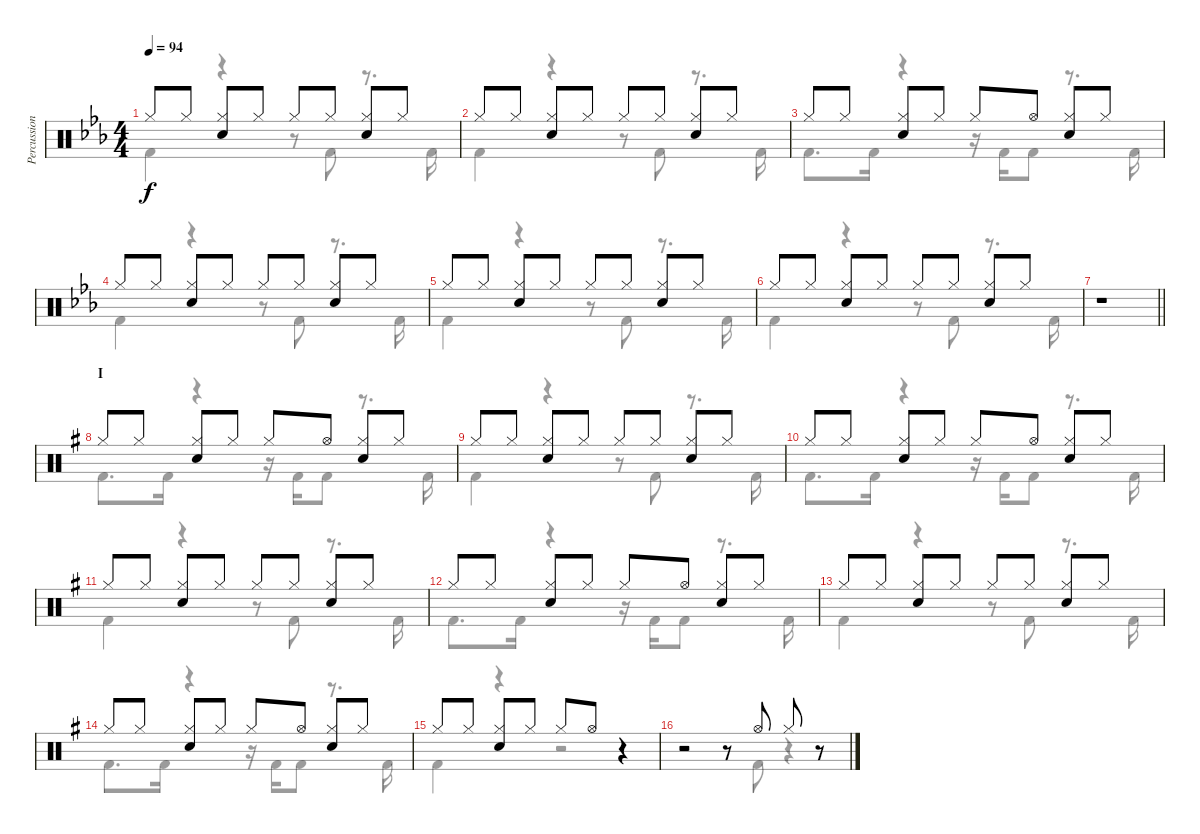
\track ("Percussion" "Percussion") {instrument percussion}
\staff {score}
\articulation defaults
\voice
\ts (4 4)
\tempo 94
\clef neutral
\ks eb "Hi-Hat (closed)".8{dy f} "Hi-Hat (closed)".8
("Hi-Hat (closed)" "Electric Snare (hit)").8 "Hi-Hat (closed)".8 "Hi-Hat (closed)".8 "Hi-Hat (closed)".8 ("Hi-Hat (closed)" "Electric Snare (hit)").8 "Hi-Hat (closed)".8 |
"Hi-Hat (closed)".8 "Hi-Hat (closed)".8 ("Hi-Hat (closed)" "Electric Snare (hit)").8 "Hi-Hat (closed)".8 "Hi-Hat (closed)".8 "Hi-Hat (closed)".8 ("Hi-Hat (closed)" "Electric Snare (hit)").8 "Hi-Hat (closed)".8 |
"Hi-Hat (closed)".8 "Hi-Hat (closed)".8 ("Hi-Hat (closed)" "Electric Snare (hit)").8 "Hi-Hat (closed)".8 "Hi-Hat (closed)".8 "Hi-Hat (open)".8 ("Hi-Hat (closed)" "Electric Snare (hit)").8 "Hi-Hat (closed)".8 |
"Hi-Hat (closed)".8 "Hi-Hat (closed)".8 ("Hi-Hat (closed)" "Electric Snare (hit)").8 "Hi-Hat (closed)".8 "Hi-Hat (closed)".8 "Hi-Hat (closed)".8 ("Hi-Hat (closed)" "Electric Snare (hit)").8 "Hi-Hat (closed)".8 |
"Hi-Hat (closed)".8 "Hi-Hat (closed)".8 ("Hi-Hat (closed)" "Electric Snare (hit)").8 "Hi-Hat (closed)".8 "Hi-Hat (closed)".8 "Hi-Hat (closed)".8 ("Hi-Hat (closed)" "Electric Snare (hit)").8 "Hi-Hat (closed)".8 |
"Hi-Hat (closed)".8 "Hi-Hat (closed)".8 ("Hi-Hat (closed)" "Electric Snare (hit)").8 "Hi-Hat (closed)".8 "Hi-Hat (closed)".8 "Hi-Hat (closed)".8 ("Hi-Hat (closed)" "Electric Snare (hit)").8 "Hi-Hat (closed)".8 |
\barLineRight lightlight
r.1 |
\section ("" "I")
\ks g "Hi-Hat (closed)".8 "Hi-Hat (closed)".8
("Hi-Hat (closed)" "Electric Snare (hit)").8 "Hi-Hat (closed)".8 "Hi-Hat (closed)".8 "Hi-Hat (open)".8 ("Hi-Hat (closed)" "Electric Snare (hit)").8 "Hi-Hat (closed)".8 |
"Hi-Hat (closed)".8 "Hi-Hat (closed)".8 ("Hi-Hat (closed)" "Electric Snare (hit)").8 "Hi-Hat (closed)".8 "Hi-Hat (closed)".8 "Hi-Hat (closed)".8 ("Hi-Hat (closed)" "Electric Snare (hit)").8 "Hi-Hat (closed)".8 |
"Hi-Hat (closed)".8 "Hi-Hat (closed)".8 ("Hi-Hat (closed)" "Electric Snare (hit)").8 "Hi-Hat (closed)".8 "Hi-Hat (closed)".8 "Hi-Hat (open)".8 ("Hi-Hat (closed)" "Electric Snare (hit)").8 "Hi-Hat (closed)".8 |
"Hi-Hat (closed)".8 "Hi-Hat (closed)".8 ("Hi-Hat (closed)" "Electric Snare (hit)").8 "Hi-Hat (closed)".8 "Hi-Hat (closed)".8 "Hi-Hat (closed)".8 ("Hi-Hat (closed)" "Electric Snare (hit)").8 "Hi-Hat (closed)".8 |
"Hi-Hat (closed)".8 "Hi-Hat (closed)".8 ("Hi-Hat (closed)" "Electric Snare (hit)").8 "Hi-Hat (closed)".8 "Hi-Hat (closed)".8 "Hi-Hat (open)".8 ("Hi-Hat (closed)" "Electric Snare (hit)").8 "Hi-Hat (closed)".8 |
"Hi-Hat (closed)".8 "Hi-Hat (closed)".8 ("Hi-Hat (closed)" "Electric Snare (hit)").8 "Hi-Hat (closed)".8 "Hi-Hat (closed)".8 "Hi-Hat (closed)".8 ("Hi-Hat (closed)" "Electric Snare (hit)").8 "Hi-Hat (closed)".8 |
"Hi-Hat (closed)".8 "Hi-Hat (closed)".8 ("Hi-Hat (closed)" "Electric Snare (hit)").8 "Hi-Hat (closed)".8 "Hi-Hat (closed)".8 "Hi-Hat (open)".8 ("Hi-Hat (closed)" "Electric Snare (hit)").8 "Hi-Hat (closed)".8 |
"Hi-Hat (closed)".8 "Hi-Hat (closed)".8 ("Hi-Hat (closed)" "Electric Snare (hit)").8 "Hi-Hat (closed)".8 "Hi-Hat (closed)".8 "Hi-Hat (open)".8 r.4 |
r.2 r.8 "Hi-Hat (open)".8 "Hi-Hat (closed)".8 r.8
\voice
\clef neutral
\ottava regular
\simile none
\ks eb "Kick (hit) 2".4{dy f}
r.4 r.8 "Kick (hit) 2".8 r.8{d} "Kick (hit) 2".16 |
"Kick (hit) 2".4 r.4 r.8 "Kick (hit) 2".8 r.8{d} "Kick (hit) 2".16 |
"Kick (hit) 2".8{d} "Kick (hit) 2".16 r.4 r.16 "Kick (hit) 2".16 "Kick (hit) 2".8 r.8{d} "Kick (hit) 2".16 |
"Kick (hit) 2".4 r.4 r.8 "Kick (hit) 2".8 r.8{d} "Kick (hit) 2".16 |
"Kick (hit) 2".4 r.4 r.8 "Kick (hit) 2".8 r.8{d} "Kick (hit) 2".16 |
"Kick (hit) 2".4 r.4 r.8 "Kick (hit) 2".8 r.8{d} "Kick (hit) 2".16 |
\barLineRight lightlight
|
\ks g "Kick (hit) 2".8{d} "Kick (hit) 2".16
r.4 r.16 "Kick (hit) 2".16 "Kick (hit) 2".8 r.8{d} "Kick (hit) 2".16 |
"Kick (hit) 2".4 r.4 r.8 "Kick (hit) 2".8 r.8{d} "Kick (hit) 2".16 |
"Kick (hit) 2".8{d} "Kick (hit) 2".16 r.4 r.16 "Kick (hit) 2".16 "Kick (hit) 2".8 r.8{d} "Kick (hit) 2".16 |
"Kick (hit) 2".4 r.4 r.8 "Kick (hit) 2".8 r.8{d} "Kick (hit) 2".16 |
"Kick (hit) 2".8{d} "Kick (hit) 2".16 r.4 r.16 "Kick (hit) 2".16 "Kick (hit) 2".8 r.8{d} "Kick (hit) 2".16 |
"Kick (hit) 2".4 r.4 r.8 "Kick (hit) 2".8 r.8{d} "Kick (hit) 2".16 |
"Kick (hit) 2".8{d} "Kick (hit) 2".16 r.4 r.16 "Kick (hit) 2".16 "Kick (hit) 2".8 r.8{d} "Kick (hit) 2".16 |
"Kick (hit) 2".4 r.4 r.2 |
r.2 r.8 "Kick (hit) 2".8 r.4
